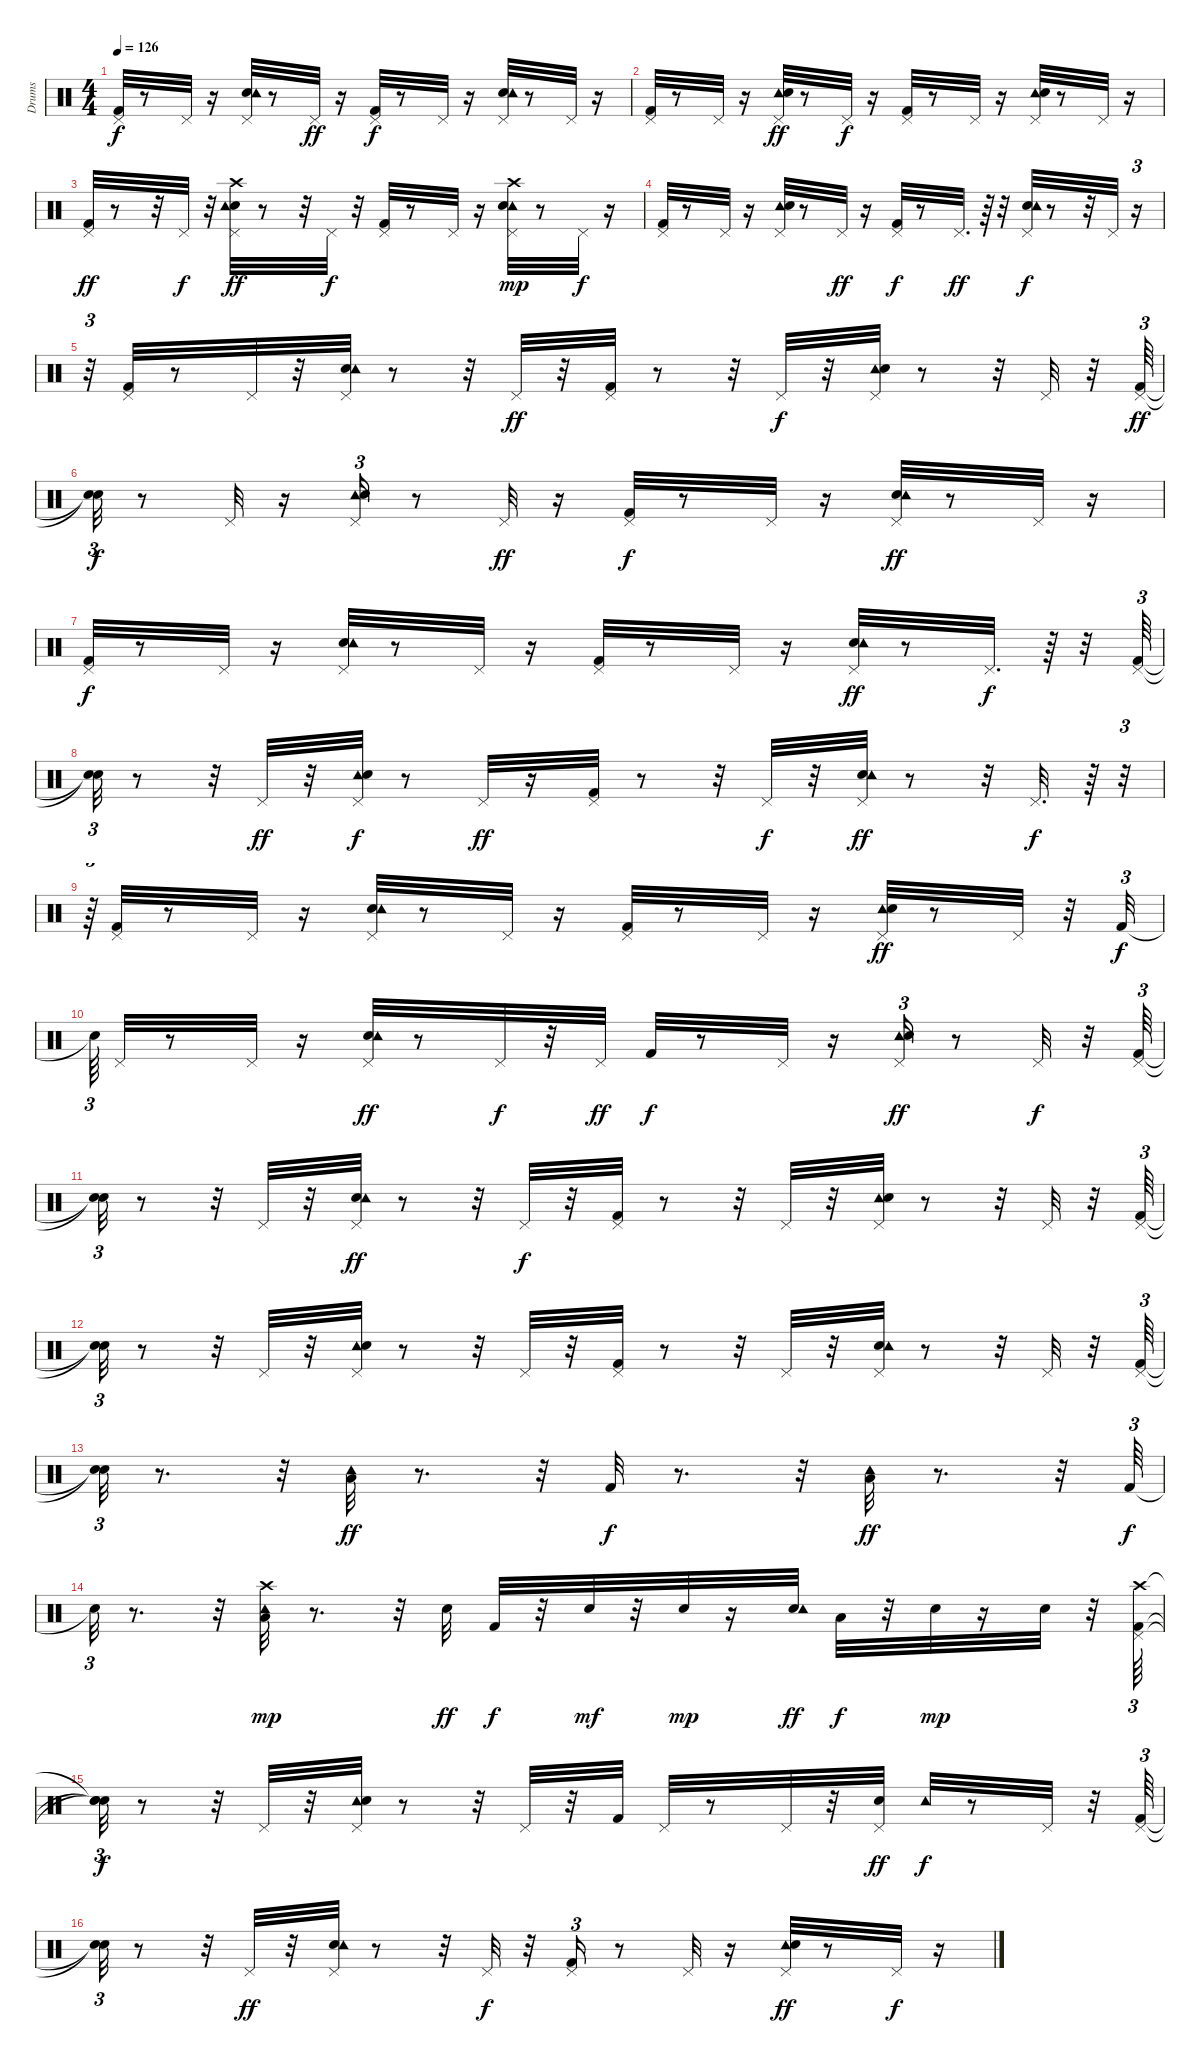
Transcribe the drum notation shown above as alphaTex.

\track ("Drums" "Drums") {instrument percussion}
\staff {score}
\articulation defaults
\ts (4 4)
\tempo 126
\clef neutral
\ks c
("Pedal Hi-Hat (hit)" "Kick (hit) 2").32{dy f} r.8 "Pedal Hi-Hat (hit)".32 r.16 ("Pedal Hi-Hat (hit)" "Electric Snare (hit)" "Tambourine (hit)").32 r.8 "Pedal Hi-Hat (hit)".32{dy ff} r.16 ("Kick (hit) 2" "Pedal Hi-Hat (hit)").32{dy f} r.8 "Pedal Hi-Hat (hit)".32 r.16 ("Electric Snare (hit)" "Tambourine (hit)" "Pedal Hi-Hat (hit)").32 r.8 "Pedal Hi-Hat (hit)".32 r.16 |
("Kick (hit) 2" "Pedal Hi-Hat (hit)").32 r.8 "Pedal Hi-Hat (hit)".32 r.16 ("Pedal Hi-Hat (hit)" "Tambourine (hit)" "Electric Snare (hit)").32{dy ff} r.8 "Pedal Hi-Hat (hit)".32{dy f} r.16 ("Pedal Hi-Hat (hit)" "Kick (hit) 2").32 r.8 "Pedal Hi-Hat (hit)".32 r.16 ("Pedal Hi-Hat (hit)" "Tambourine (hit)" "Electric Snare (hit)").32 r.8 "Pedal Hi-Hat (hit)".32 r.16 |
("Kick (hit) 2" "Pedal Hi-Hat (hit)").32{dy ff} r.8 r.32 "Pedal Hi-Hat (hit)".32{dy f} r.32 ("Crash high (hit)" "Electric Snare (hit)" "Tambourine (hit)" "Pedal Hi-Hat (hit)").32{dy ff} r.8 r.32 "Pedal Hi-Hat (hit)".32{dy f} r.32 ("Kick (hit) 2" "Pedal Hi-Hat (hit)").32 r.8 "Pedal Hi-Hat (hit)".32 r.16 ("Pedal Hi-Hat (hit)" "Crash high (hit)" "Tambourine (hit)" "Electric Snare (hit)").32{dy mp} r.8 "Pedal Hi-Hat (hit)".32{dy f} r.16 |
("Pedal Hi-Hat (hit)" "Kick (hit) 2").32 r.8 "Pedal Hi-Hat (hit)".32 r.16 ("Tambourine (hit)" "Electric Snare (hit)" "Pedal Hi-Hat (hit)").32 r.8 "Pedal Hi-Hat (hit)".32{dy ff} r.16 ("Kick (hit) 2" "Pedal Hi-Hat (hit)").32{dy f} r.8 "Pedal Hi-Hat (hit)".32{d dy ff} r.64 r.32 ("Electric Snare (hit)" "Pedal Hi-Hat (hit)" "Tambourine (hit)").32{dy f} r.8 r.32 "Pedal Hi-Hat (hit)".32 r.16{tu (3 2)} |
r.32{tu (3 2)} ("Kick (hit) 2" "Pedal Hi-Hat (hit)").32 r.8 "Pedal Hi-Hat (hit)".32 r.32 ("Pedal Hi-Hat (hit)" "Electric Snare (hit)" "Tambourine (hit)").32 r.8 r.32 "Pedal Hi-Hat (hit)".32{dy ff} r.32 ("Pedal Hi-Hat (hit)" "Kick (hit) 2").32 r.8 r.32 "Pedal Hi-Hat (hit)".32{dy f} r.32 ("Tambourine (hit)" "Pedal Hi-Hat (hit)" "Electric Snare (hit)").32 r.8 r.32 "Pedal Hi-Hat (hit)".32 r.32 ("Pedal Hi-Hat (hit)" "Kick (hit) 2").64{tu (3 2) dy ff} |
("Snare (hit)"{t} "Snare (hit)"{t}).32{tu (3 2) dy f} r.8 "Pedal Hi-Hat (hit)".32 r.16 ("Tambourine (hit)" "Electric Snare (hit)" "Pedal Hi-Hat (hit)").16{tu (3 2)} r.8 "Pedal Hi-Hat (hit)".32{dy ff} r.16 ("Kick (hit) 2" "Pedal Hi-Hat (hit)").32{dy f} r.8 "Pedal Hi-Hat (hit)".32 r.16 ("Electric Snare (hit)" "Pedal Hi-Hat (hit)" "Tambourine (hit)").32{dy ff} r.8 "Pedal Hi-Hat (hit)".32 r.16 |
("Kick (hit) 2" "Pedal Hi-Hat (hit)").32{dy f} r.8 "Pedal Hi-Hat (hit)".32 r.16 ("Electric Snare (hit)" "Pedal Hi-Hat (hit)" "Tambourine (hit)").32 r.8 "Pedal Hi-Hat (hit)".32 r.16 ("Kick (hit) 2" "Pedal Hi-Hat (hit)").32 r.8 "Pedal Hi-Hat (hit)".32 r.16 ("Electric Snare (hit)" "Pedal Hi-Hat (hit)" "Tambourine (hit)").32{dy ff} r.8 "Pedal Hi-Hat (hit)".32{d dy f} r.64 r.32 ("Kick (hit) 2" "Pedal Hi-Hat (hit)").64{tu (3 2)} |
("Snare (hit)"{t} "Snare (hit)"{t}).32{tu (3 2)} r.8 r.32 "Pedal Hi-Hat (hit)".32{dy ff} r.32 ("Pedal Hi-Hat (hit)" "Tambourine (hit)" "Electric Snare (hit)").32{dy f} r.8 "Pedal Hi-Hat (hit)".32{dy ff} r.16 ("Kick (hit) 2" "Pedal Hi-Hat (hit)").32 r.8 r.32 "Pedal Hi-Hat (hit)".32{dy f} r.32 ("Electric Snare (hit)" "Pedal Hi-Hat (hit)" "Tambourine (hit)").32{dy ff} r.8 r.32 "Pedal Hi-Hat (hit)".32{d dy f} r.64 r.32{tu (3 2)} |
r.64{tu (3 2)} ("Pedal Hi-Hat (hit)" "Kick (hit) 2").32 r.8 "Pedal Hi-Hat (hit)".32 r.16 ("Pedal Hi-Hat (hit)" "Electric Snare (hit)" "Tambourine (hit)").32 r.8 "Pedal Hi-Hat (hit)".32 r.16 ("Pedal Hi-Hat (hit)" "Kick (hit) 2").32 r.8 "Pedal Hi-Hat (hit)".32 r.16 ("Tambourine (hit)" "Pedal Hi-Hat (hit)" "Electric Snare (hit)").32{dy ff} r.8 "Pedal Hi-Hat (hit)".32 r.32 "Kick (hit) 2".32{tu (3 2) dy f} |
"Snare (hit)"{t}.64{tu (3 2)} "Pedal Hi-Hat (hit)".32 r.8 "Pedal Hi-Hat (hit)".32 r.16 ("Pedal Hi-Hat (hit)" "Electric Snare (hit)" "Tambourine (hit)").32{dy ff} r.8 "Pedal Hi-Hat (hit)".32{dy f} r.32 "Pedal Hi-Hat (hit)".32{dy ff} "Kick (hit) 2".32{dy f} r.8 "Pedal Hi-Hat (hit)".32 r.16 ("Tambourine (hit)" "Pedal Hi-Hat (hit)" "Electric Snare (hit)").16{tu (3 2) dy ff} r.8 "Pedal Hi-Hat (hit)".32{dy f} r.32 ("Kick (hit) 2" "Pedal Hi-Hat (hit)").64{tu (3 2)} |
("Snare (hit)"{t} "Snare (hit)"{t}).32{tu (3 2)} r.8 r.32 "Pedal Hi-Hat (hit)".32 r.32 ("Electric Snare (hit)" "Tambourine (hit)" "Pedal Hi-Hat (hit)").32{dy ff} r.8 r.32 "Pedal Hi-Hat (hit)".32{dy f} r.32 ("Kick (hit) 2" "Pedal Hi-Hat (hit)").32 r.8 r.32 "Pedal Hi-Hat (hit)".32 r.32 ("Tambourine (hit)" "Pedal Hi-Hat (hit)" "Electric Snare (hit)").32 r.8 r.32 "Pedal Hi-Hat (hit)".32 r.32 ("Kick (hit) 2" "Pedal Hi-Hat (hit)").64{tu (3 2)} |
("Snare (hit)"{t} "Snare (hit)"{t}).32{tu (3 2)} r.8 r.32 "Pedal Hi-Hat (hit)".32 r.32 ("Tambourine (hit)" "Pedal Hi-Hat (hit)" "Electric Snare (hit)").32 r.8 r.32 "Pedal Hi-Hat (hit)".32 r.32 ("Kick (hit) 2" "Pedal Hi-Hat (hit)").32 r.8 r.32 "Pedal Hi-Hat (hit)".32 r.32 ("Pedal Hi-Hat (hit)" "Electric Snare (hit)" "Tambourine (hit)").32 r.8 r.32 "Pedal Hi-Hat (hit)".32 r.32 ("Kick (hit) 2" "Pedal Hi-Hat (hit)").64{tu (3 2)} |
("Snare (hit)"{t} "Snare (hit)"{t}).32{tu (3 2)} r.8{d} r.32 ("Tambourine (hit)" "Low Tom (hit)").32{dy ff} r.8{d} r.32 "Kick (hit) 2".32{dy f} r.8{d} r.32 ("Low Tom (hit)" "Tambourine (hit)").32{dy ff} r.8{d} r.32 "Kick (hit) 2".64{tu (3 2) dy f} |
"Snare (hit)"{t}.32{tu (3 2)} r.8{d} r.32 ("Low Tom (hit)" "Tambourine (hit)" "Crash high (hit)").32{dy mp} r.8{d} r.32 "Snare (hit) 2".32{dy ff} "Kick (hit) 2".32{dy f} r.32 "Snare (hit) 2".32{dy mf} r.32 "Snare (hit) 2".32{dy mp} r.16 ("Snare (hit) 2" "Tambourine (hit)").32{dy ff} "Low Tom (hit)".32{dy f} r.32 "Snare (hit) 2".32{dy mp} r.16 "Snare (hit) 2".32 r.32 ("Pedal Hi-Hat (hit)" "Kick (hit) 2" "Crash high (hit)").64{tu (3 2)} |
("Snare (hit)"{t} "Snare (hit)"{t} "Snare (hit)"{t}).32{tu (3 2) dy f} r.8 r.32 "Pedal Hi-Hat (hit)".32 r.32 ("Tambourine (hit)" "Electric Snare (hit)" "Pedal Hi-Hat (hit)").32 r.8 r.32 "Pedal Hi-Hat (hit)".32 r.32 "Kick (hit) 2".32 "Pedal Hi-Hat (hit)".32 r.8 "Pedal Hi-Hat (hit)".32 r.32 ("Electric Snare (hit)" "Pedal Hi-Hat (hit)").32{dy ff} "Tambourine (hit)".32{dy f} r.8 "Pedal Hi-Hat (hit)".32 r.32 ("Kick (hit) 2" "Pedal Hi-Hat (hit)").64{tu (3 2)} |
("Snare (hit)"{t} "Snare (hit)"{t}).32{tu (3 2)} r.8 r.32 "Pedal Hi-Hat (hit)".32{dy ff} r.32 ("Pedal Hi-Hat (hit)" "Electric Snare (hit)" "Tambourine (hit)").32 r.8 r.32 "Pedal Hi-Hat (hit)".32{dy f} r.32 ("Kick (hit) 2" "Pedal Hi-Hat (hit)").16{tu (3 2)} r.8 "Pedal Hi-Hat (hit)".32 r.16 ("Tambourine (hit)" "Pedal Hi-Hat (hit)" "Electric Snare (hit)").32{dy ff} r.8 "Pedal Hi-Hat (hit)".32{dy f} r.16
